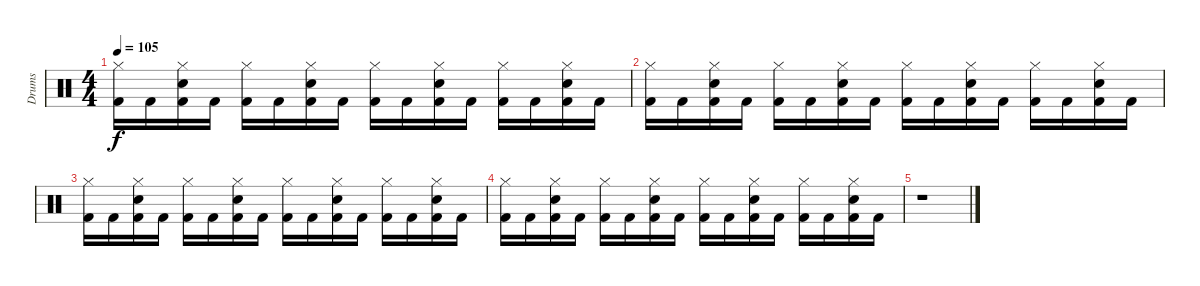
\track ("Drums" "Drums") {instrument percussion}
\staff {score}
\articulation defaults
\ts (4 4)
\tempo 105
\clef neutral
\ks c
("Kick (hit) 2" "Hi-Hat (closed)").16{dy f volume 0} "Kick (hit) 2".16 ("Kick (hit) 2" "Snare (hit) 2" "Hi-Hat (closed)").16 "Kick (hit) 2".16 ("Kick (hit) 2" "Hi-Hat (closed)").16 "Kick (hit) 2".16 ("Kick (hit) 2" "Snare (hit) 2" "Hi-Hat (closed)").16 "Kick (hit) 2".16 ("Kick (hit) 2" "Hi-Hat (closed)").16 "Kick (hit) 2".16 ("Kick (hit) 2" "Snare (hit) 2" "Hi-Hat (closed)").16 "Kick (hit) 2".16 ("Kick (hit) 2" "Hi-Hat (closed)").16 "Kick (hit) 2".16 ("Kick (hit) 2" "Snare (hit) 2" "Hi-Hat (closed)").16 "Kick (hit) 2".16 |
("Kick (hit) 2" "Hi-Hat (closed)").16 "Kick (hit) 2".16 ("Kick (hit) 2" "Snare (hit) 2" "Hi-Hat (closed)").16 "Kick (hit) 2".16 ("Kick (hit) 2" "Hi-Hat (closed)").16 "Kick (hit) 2".16 ("Kick (hit) 2" "Snare (hit) 2" "Hi-Hat (closed)").16 "Kick (hit) 2".16 ("Kick (hit) 2" "Hi-Hat (closed)").16 "Kick (hit) 2".16 ("Kick (hit) 2" "Snare (hit) 2" "Hi-Hat (closed)").16 "Kick (hit) 2".16 ("Kick (hit) 2" "Hi-Hat (closed)").16 "Kick (hit) 2".16 ("Kick (hit) 2" "Snare (hit) 2" "Hi-Hat (closed)").16 "Kick (hit) 2".16 |
("Kick (hit) 2" "Hi-Hat (closed)").16 "Kick (hit) 2".16 ("Kick (hit) 2" "Snare (hit) 2" "Hi-Hat (closed)").16 "Kick (hit) 2".16 ("Kick (hit) 2" "Hi-Hat (closed)").16 "Kick (hit) 2".16 ("Kick (hit) 2" "Snare (hit) 2" "Hi-Hat (closed)").16 "Kick (hit) 2".16 ("Kick (hit) 2" "Hi-Hat (closed)").16 "Kick (hit) 2".16 ("Kick (hit) 2" "Snare (hit) 2" "Hi-Hat (closed)").16 "Kick (hit) 2".16 ("Kick (hit) 2" "Hi-Hat (closed)").16 "Kick (hit) 2".16 ("Kick (hit) 2" "Snare (hit) 2" "Hi-Hat (closed)").16 "Kick (hit) 2".16 |
("Kick (hit) 2" "Hi-Hat (closed)").16 "Kick (hit) 2".16 ("Kick (hit) 2" "Snare (hit) 2" "Hi-Hat (closed)").16 "Kick (hit) 2".16 ("Kick (hit) 2" "Hi-Hat (closed)").16 "Kick (hit) 2".16 ("Kick (hit) 2" "Snare (hit) 2" "Hi-Hat (closed)").16 "Kick (hit) 2".16 ("Kick (hit) 2" "Hi-Hat (closed)").16 "Kick (hit) 2".16 ("Kick (hit) 2" "Snare (hit) 2" "Hi-Hat (closed)").16 "Kick (hit) 2".16 ("Kick (hit) 2" "Hi-Hat (closed)").16 "Kick (hit) 2".16 ("Kick (hit) 2" "Snare (hit) 2" "Hi-Hat (closed)").16 "Kick (hit) 2".16 |
r.1
